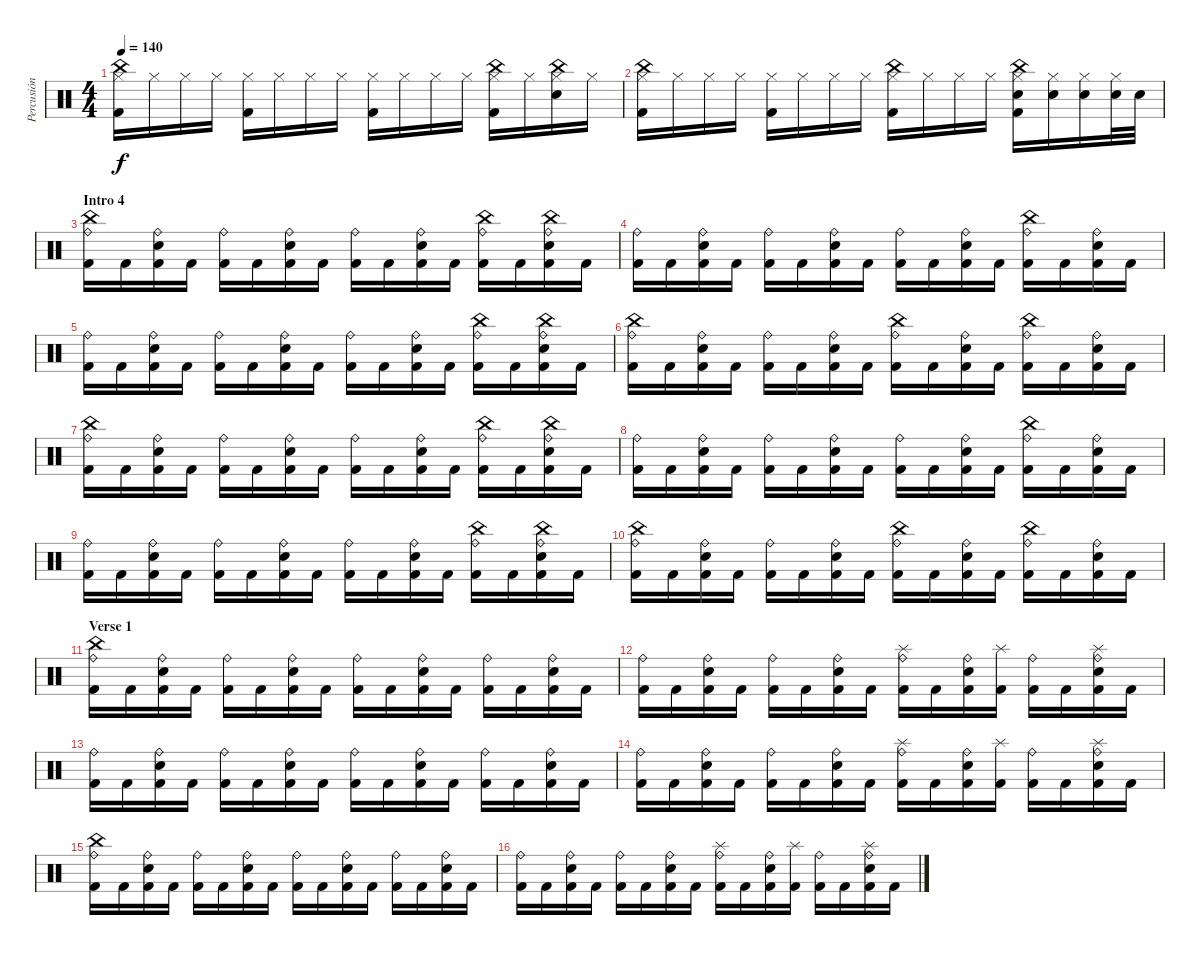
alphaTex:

\track ("Percusión" "Percusión") {instrument percussion}
\staff {score}
\articulation defaults
\ts (4 4)
\tempo 140
\clef neutral
\ks c
("Kick (hit) 2" "China (hit)" "Hi-Hat (closed)").16{dy f} "Hi-Hat (closed)".16 "Hi-Hat (closed)".16 "Hi-Hat (closed)".16 ("Kick (hit) 2" "Hi-Hat (closed)").16 "Hi-Hat (closed)".16 "Hi-Hat (closed)".16 "Hi-Hat (closed)".16 ("Kick (hit) 2" "Hi-Hat (closed)").16 "Hi-Hat (closed)".16 "Hi-Hat (closed)".16 "Hi-Hat (closed)".16 ("Kick (hit) 2" "China (hit)" "Hi-Hat (closed)").16 "Hi-Hat (closed)".16 ("Electric Snare (hit)" "China (hit)" "Hi-Hat (closed)").16 "Hi-Hat (closed)".16 |
("Kick (hit) 2" "China (hit)" "Hi-Hat (closed)").16 "Hi-Hat (closed)".16 "Hi-Hat (closed)".16 "Hi-Hat (closed)".16 ("Kick (hit) 2" "Hi-Hat (closed)").16 "Hi-Hat (closed)".16 "Hi-Hat (closed)".16 "Hi-Hat (closed)".16 ("Kick (hit) 2" "China (hit)" "Hi-Hat (closed)").16 "Hi-Hat (closed)".16 "Hi-Hat (closed)".16 "Hi-Hat (closed)".16 ("Kick (hit) 2" "Electric Snare (hit)" "China (hit)" "Hi-Hat (closed)").16 ("Electric Snare (hit)" "Hi-Hat (closed)").16 ("Electric Snare (hit)" "Hi-Hat (closed)").16 ("Electric Snare (hit)" "Hi-Hat (closed)").32 "Electric Snare (hit)".32 |
\section ("" "Intro 4")
("Ride (bell)" "China (hit)" "Kick (hit) 2").16 "Kick (hit) 2".16 ("Ride (bell)" "Electric Snare (hit)" "Kick (hit) 2").16 "Kick (hit) 2".16 ("Ride (bell)" "Kick (hit) 2").16 "Kick (hit) 2".16 ("Ride (bell)" "Electric Snare (hit)" "Kick (hit) 2").16 "Kick (hit) 2".16 ("Ride (bell)" "Kick (hit) 2").16 "Kick (hit) 2".16 ("Ride (bell)" "Electric Snare (hit)" "Kick (hit) 2").16 "Kick (hit) 2".16 ("Ride (bell)" "China (hit)" "Kick (hit) 2").16 "Kick (hit) 2".16 ("Ride (bell)" "Electric Snare (hit)" "China (hit)" "Kick (hit) 2").16 "Kick (hit) 2".16 |
("Ride (bell)" "Kick (hit) 2").16 "Kick (hit) 2".16 ("Ride (bell)" "Electric Snare (hit)" "Kick (hit) 2").16 "Kick (hit) 2".16 ("Ride (bell)" "Kick (hit) 2").16 "Kick (hit) 2".16 ("Ride (bell)" "Electric Snare (hit)" "Kick (hit) 2").16 "Kick (hit) 2".16 ("Ride (bell)" "Kick (hit) 2").16 "Kick (hit) 2".16 ("Ride (bell)" "Electric Snare (hit)" "Kick (hit) 2").16 "Kick (hit) 2".16 ("Ride (bell)" "China (hit)" "Kick (hit) 2").16 "Kick (hit) 2".16 ("Ride (bell)" "Electric Snare (hit)" "Kick (hit) 2").16 "Kick (hit) 2".16 |
("Ride (bell)" "Kick (hit) 2").16 "Kick (hit) 2".16 ("Ride (bell)" "Electric Snare (hit)" "Kick (hit) 2").16 "Kick (hit) 2".16 ("Ride (bell)" "Kick (hit) 2").16 "Kick (hit) 2".16 ("Ride (bell)" "Electric Snare (hit)" "Kick (hit) 2").16 "Kick (hit) 2".16 ("Ride (bell)" "Kick (hit) 2").16 "Kick (hit) 2".16 ("Ride (bell)" "Electric Snare (hit)" "Kick (hit) 2").16 "Kick (hit) 2".16 ("Ride (bell)" "China (hit)" "Kick (hit) 2").16 "Kick (hit) 2".16 ("Ride (bell)" "Electric Snare (hit)" "China (hit)" "Kick (hit) 2").16 "Kick (hit) 2".16 |
("Ride (bell)" "China (hit)" "Kick (hit) 2").16 "Kick (hit) 2".16 ("Ride (bell)" "Electric Snare (hit)" "Kick (hit) 2").16 "Kick (hit) 2".16 ("Ride (bell)" "Kick (hit) 2").16 "Kick (hit) 2".16 ("Ride (bell)" "Electric Snare (hit)" "Kick (hit) 2").16 "Kick (hit) 2".16 ("Ride (bell)" "China (hit)" "Kick (hit) 2").16 "Kick (hit) 2".16 ("Ride (bell)" "Electric Snare (hit)" "Kick (hit) 2").16 "Kick (hit) 2".16 ("Ride (bell)" "China (hit)" "Kick (hit) 2").16 "Kick (hit) 2".16 ("Ride (bell)" "Electric Snare (hit)" "Kick (hit) 2").16 "Kick (hit) 2".16 |
("Ride (bell)" "China (hit)" "Kick (hit) 2").16 "Kick (hit) 2".16 ("Ride (bell)" "Electric Snare (hit)" "Kick (hit) 2").16 "Kick (hit) 2".16 ("Ride (bell)" "Kick (hit) 2").16 "Kick (hit) 2".16 ("Ride (bell)" "Electric Snare (hit)" "Kick (hit) 2").16 "Kick (hit) 2".16 ("Ride (bell)" "Kick (hit) 2").16 "Kick (hit) 2".16 ("Ride (bell)" "Electric Snare (hit)" "Kick (hit) 2").16 "Kick (hit) 2".16 ("Ride (bell)" "China (hit)" "Kick (hit) 2").16 "Kick (hit) 2".16 ("Ride (bell)" "Electric Snare (hit)" "China (hit)" "Kick (hit) 2").16 "Kick (hit) 2".16 |
("Ride (bell)" "Kick (hit) 2").16 "Kick (hit) 2".16 ("Ride (bell)" "Electric Snare (hit)" "Kick (hit) 2").16 "Kick (hit) 2".16 ("Ride (bell)" "Kick (hit) 2").16 "Kick (hit) 2".16 ("Ride (bell)" "Electric Snare (hit)" "Kick (hit) 2").16 "Kick (hit) 2".16 ("Ride (bell)" "Kick (hit) 2").16 "Kick (hit) 2".16 ("Ride (bell)" "Electric Snare (hit)" "Kick (hit) 2").16 "Kick (hit) 2".16 ("Ride (bell)" "China (hit)" "Kick (hit) 2").16 "Kick (hit) 2".16 ("Ride (bell)" "Electric Snare (hit)" "Kick (hit) 2").16 "Kick (hit) 2".16 |
("Ride (bell)" "Kick (hit) 2").16 "Kick (hit) 2".16 ("Ride (bell)" "Electric Snare (hit)" "Kick (hit) 2").16 "Kick (hit) 2".16 ("Ride (bell)" "Kick (hit) 2").16 "Kick (hit) 2".16 ("Ride (bell)" "Electric Snare (hit)" "Kick (hit) 2").16 "Kick (hit) 2".16 ("Ride (bell)" "Kick (hit) 2").16 "Kick (hit) 2".16 ("Ride (bell)" "Electric Snare (hit)" "Kick (hit) 2").16 "Kick (hit) 2".16 ("Ride (bell)" "China (hit)" "Kick (hit) 2").16 "Kick (hit) 2".16 ("Ride (bell)" "Electric Snare (hit)" "China (hit)" "Kick (hit) 2").16 "Kick (hit) 2".16 |
\section ("" "")
("Ride (bell)" "China (hit)" "Kick (hit) 2").16 "Kick (hit) 2".16 ("Ride (bell)" "Electric Snare (hit)" "Kick (hit) 2").16 "Kick (hit) 2".16 ("Ride (bell)" "Kick (hit) 2").16 "Kick (hit) 2".16 ("Ride (bell)" "Electric Snare (hit)" "Kick (hit) 2").16 "Kick (hit) 2".16 ("Ride (bell)" "China (hit)" "Kick (hit) 2").16 "Kick (hit) 2".16 ("Ride (bell)" "Electric Snare (hit)" "Kick (hit) 2").16 "Kick (hit) 2".16 ("Ride (bell)" "China (hit)" "Kick (hit) 2").16 "Kick (hit) 2".16 ("Ride (bell)" "Electric Snare (hit)" "Kick (hit) 2").16 "Kick (hit) 2".16 |
\section ("" "Verse 1")
("Ride (bell)" "Kick (hit) 2" "China (hit)").16 "Kick (hit) 2".16 ("Ride (bell)" "Electric Snare (hit)" "Kick (hit) 2").16 "Kick (hit) 2".16 ("Ride (bell)" "Kick (hit) 2").16 "Kick (hit) 2".16 ("Ride (bell)" "Electric Snare (hit)" "Kick (hit) 2").16 "Kick (hit) 2".16 ("Ride (bell)" "Kick (hit) 2").16 "Kick (hit) 2".16 ("Ride (bell)" "Electric Snare (hit)" "Kick (hit) 2").16 "Kick (hit) 2".16 ("Ride (bell)" "Kick (hit) 2").16 "Kick (hit) 2".16 ("Ride (bell)" "Electric Snare (hit)" "Kick (hit) 2").16 "Kick (hit) 2".16 |
("Ride (bell)" "Kick (hit) 2").16 "Kick (hit) 2".16 ("Ride (bell)" "Electric Snare (hit)" "Kick (hit) 2").16 "Kick (hit) 2".16 ("Ride (bell)" "Kick (hit) 2").16 "Kick (hit) 2".16 ("Ride (bell)" "Electric Snare (hit)" "Kick (hit) 2").16 "Kick (hit) 2".16 ("Ride (bell)" "Kick (hit) 2" "Splash (hit)").16 "Kick (hit) 2".16 ("Ride (bell)" "Electric Snare (hit)" "Kick (hit) 2").16 ("Kick (hit) 2" "Splash (hit)").16 ("Ride (bell)" "Kick (hit) 2").16 "Kick (hit) 2".16 ("Ride (bell)" "Electric Snare (hit)" "Kick (hit) 2" "Splash (hit)").16 "Kick (hit) 2".16 |
("Ride (bell)" "Kick (hit) 2").16 "Kick (hit) 2".16 ("Ride (bell)" "Electric Snare (hit)" "Kick (hit) 2").16 "Kick (hit) 2".16 ("Ride (bell)" "Kick (hit) 2").16 "Kick (hit) 2".16 ("Ride (bell)" "Electric Snare (hit)" "Kick (hit) 2").16 "Kick (hit) 2".16 ("Ride (bell)" "Kick (hit) 2").16 "Kick (hit) 2".16 ("Ride (bell)" "Electric Snare (hit)" "Kick (hit) 2").16 "Kick (hit) 2".16 ("Ride (bell)" "Kick (hit) 2").16 "Kick (hit) 2".16 ("Ride (bell)" "Electric Snare (hit)" "Kick (hit) 2").16 "Kick (hit) 2".16 |
("Ride (bell)" "Kick (hit) 2").16 "Kick (hit) 2".16 ("Ride (bell)" "Electric Snare (hit)" "Kick (hit) 2").16 "Kick (hit) 2".16 ("Ride (bell)" "Kick (hit) 2").16 "Kick (hit) 2".16 ("Ride (bell)" "Electric Snare (hit)" "Kick (hit) 2").16 "Kick (hit) 2".16 ("Ride (bell)" "Kick (hit) 2" "Splash (hit)").16 "Kick (hit) 2".16 ("Ride (bell)" "Electric Snare (hit)" "Kick (hit) 2").16 ("Kick (hit) 2" "Splash (hit)").16 ("Ride (bell)" "Kick (hit) 2").16 "Kick (hit) 2".16 ("Ride (bell)" "Electric Snare (hit)" "Kick (hit) 2" "Splash (hit)").16 "Kick (hit) 2".16 |
("Ride (bell)" "Kick (hit) 2" "China (hit)").16 "Kick (hit) 2".16 ("Ride (bell)" "Electric Snare (hit)" "Kick (hit) 2").16 "Kick (hit) 2".16 ("Ride (bell)" "Kick (hit) 2").16 "Kick (hit) 2".16 ("Ride (bell)" "Electric Snare (hit)" "Kick (hit) 2").16 "Kick (hit) 2".16 ("Ride (bell)" "Kick (hit) 2").16 "Kick (hit) 2".16 ("Ride (bell)" "Electric Snare (hit)" "Kick (hit) 2").16 "Kick (hit) 2".16 ("Ride (bell)" "Kick (hit) 2").16 "Kick (hit) 2".16 ("Ride (bell)" "Electric Snare (hit)" "Kick (hit) 2").16 "Kick (hit) 2".16 |
("Ride (bell)" "Kick (hit) 2").16 "Kick (hit) 2".16 ("Ride (bell)" "Electric Snare (hit)" "Kick (hit) 2").16 "Kick (hit) 2".16 ("Ride (bell)" "Kick (hit) 2").16 "Kick (hit) 2".16 ("Ride (bell)" "Electric Snare (hit)" "Kick (hit) 2").16 "Kick (hit) 2".16 ("Ride (bell)" "Kick (hit) 2" "Splash (hit)").16 "Kick (hit) 2".16 ("Ride (bell)" "Electric Snare (hit)" "Kick (hit) 2").16 ("Kick (hit) 2" "Splash (hit)").16 ("Ride (bell)" "Kick (hit) 2").16 "Kick (hit) 2".16 ("Ride (bell)" "Electric Snare (hit)" "Kick (hit) 2" "Splash (hit)").16 "Kick (hit) 2".16
